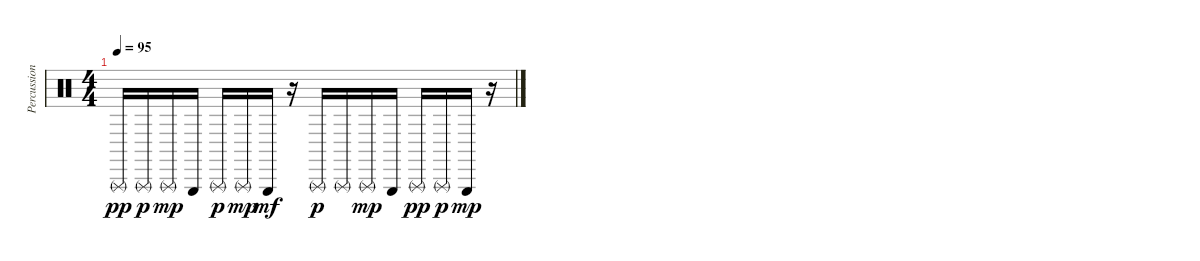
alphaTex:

\track ("Percussions" "Percussion") {instrument percussion}
\staff {score}
\articulation defaults
\ts (4 4)
\tempo 95
\clef neutral
\ks c "Triangle (rnute)".16{dy pp} "Triangle (rnute)".16{dy p} "Triangle (rnute)".16{dy mp} "Triangle (hit)".16 "Triangle (rnute)".16{dy p} "Triangle (rnute)".16{dy mp} "Triangle (hit)".16{dy mf}
r.16 "Triangle (rnute)".16{dy p} "Triangle (rnute)".16 "Triangle (rnute)".16{dy mp} "Triangle (hit)".16 "Triangle (rnute)".16{dy pp} "Triangle (rnute)".16{dy p} "Triangle (hit)".16{dy mp} r.16
